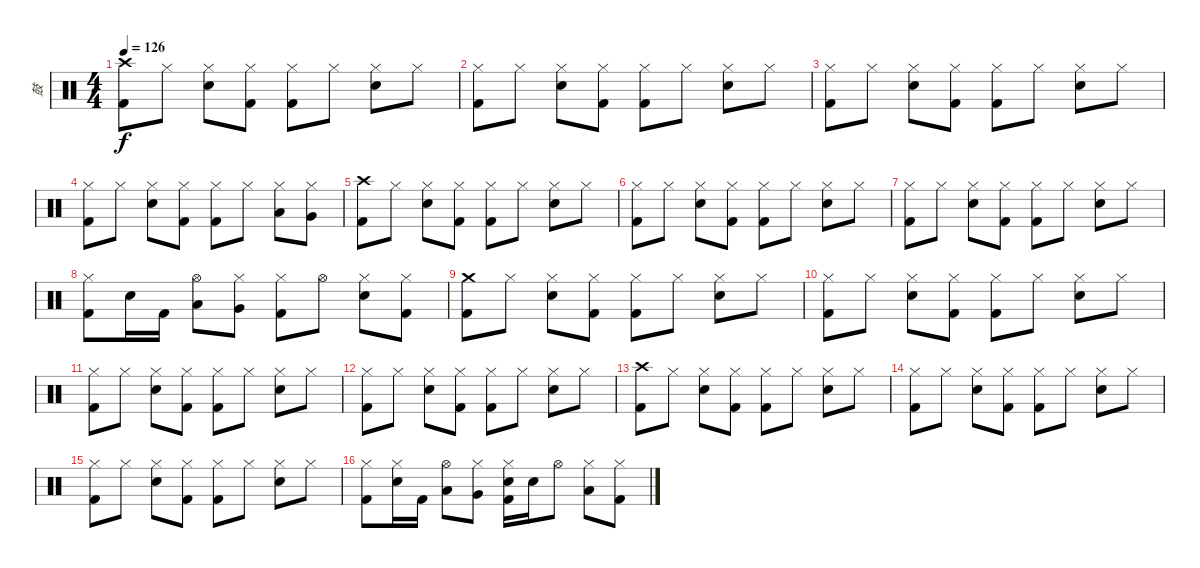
\track ("鼓" "鼓") {instrument percussion}
\staff {score}
\articulation defaults
\ts (4 4)
\tempo 126
\clef neutral
\ks c
("Crash high (hit)" "Kick (hit) 2").8{dy f} "Hi-Hat (closed)".8 ("Hi-Hat (closed)" "Electric Snare (hit)").8 ("Hi-Hat (closed)" "Kick (hit) 2").8 ("Hi-Hat (closed)" "Kick (hit) 2").8 "Hi-Hat (closed)".8 ("Hi-Hat (closed)" "Electric Snare (hit)").8 "Hi-Hat (closed)".8 |
("Hi-Hat (closed)" "Kick (hit) 2").8 "Hi-Hat (closed)".8 ("Hi-Hat (closed)" "Electric Snare (hit)").8 ("Hi-Hat (closed)" "Kick (hit) 2").8 ("Hi-Hat (closed)" "Kick (hit) 2").8 "Hi-Hat (closed)".8 ("Hi-Hat (closed)" "Electric Snare (hit)").8 "Hi-Hat (closed)".8 |
("Hi-Hat (closed)" "Kick (hit) 2").8 "Hi-Hat (closed)".8 ("Hi-Hat (closed)" "Electric Snare (hit)").8 ("Hi-Hat (closed)" "Kick (hit) 2").8 ("Hi-Hat (closed)" "Kick (hit) 2").8 "Hi-Hat (closed)".8 ("Hi-Hat (closed)" "Electric Snare (hit)").8 "Hi-Hat (closed)".8 |
("Hi-Hat (closed)" "Kick (hit) 2").8 "Hi-Hat (closed)".8 ("Hi-Hat (closed)" "Electric Snare (hit)").8 ("Hi-Hat (closed)" "Kick (hit) 2").8 ("Hi-Hat (closed)" "Kick (hit) 2").8 "Hi-Hat (closed)".8 ("Hi-Hat (closed)" "Low Tom (hit)").8 ("Hi-Hat (closed)" "Very Low Tom (hit)").8 |
("Crash high (hit)" "Kick (hit) 2").8 "Hi-Hat (closed)".8 ("Hi-Hat (closed)" "Electric Snare (hit)").8 ("Hi-Hat (closed)" "Kick (hit) 2").8 ("Hi-Hat (closed)" "Kick (hit) 2").8 "Hi-Hat (closed)".8 ("Hi-Hat (closed)" "Electric Snare (hit)").8 "Hi-Hat (closed)".8 |
("Hi-Hat (closed)" "Kick (hit) 2").8 "Hi-Hat (closed)".8 ("Hi-Hat (closed)" "Electric Snare (hit)").8 ("Hi-Hat (closed)" "Kick (hit) 2").8 ("Hi-Hat (closed)" "Kick (hit) 2").8 "Hi-Hat (closed)".8 ("Hi-Hat (closed)" "Electric Snare (hit)").8 "Hi-Hat (closed)".8 |
("Hi-Hat (closed)" "Kick (hit) 2").8 "Hi-Hat (closed)".8 ("Hi-Hat (closed)" "Electric Snare (hit)").8 ("Hi-Hat (closed)" "Kick (hit) 2").8 ("Hi-Hat (closed)" "Kick (hit) 2").8 "Hi-Hat (closed)".8 ("Hi-Hat (closed)" "Electric Snare (hit)").8 "Hi-Hat (closed)".8 |
("Hi-Hat (closed)" "Kick (hit) 2").8 "Electric Snare (hit)".16 "Kick (hit) 2".16 ("Hi-Hat (open)" "Low Tom (hit)").8 ("Hi-Hat (closed)" "Very Low Tom (hit)").8 ("Hi-Hat (closed)" "Kick (hit) 2").8 "Hi-Hat (open)".8 ("Hi-Hat (closed)" "Electric Snare (hit)").8 ("Hi-Hat (closed)" "Kick (hit) 2").8 |
("Crash medium (hit)" "Kick (hit) 2").8 "Hi-Hat (closed)".8 ("Hi-Hat (closed)" "Electric Snare (hit)").8 ("Hi-Hat (closed)" "Kick (hit) 2").8 ("Hi-Hat (closed)" "Kick (hit) 2").8 "Hi-Hat (closed)".8 ("Hi-Hat (closed)" "Electric Snare (hit)").8 "Hi-Hat (closed)".8 |
("Hi-Hat (closed)" "Kick (hit) 2").8 "Hi-Hat (closed)".8 ("Hi-Hat (closed)" "Electric Snare (hit)").8 ("Hi-Hat (closed)" "Kick (hit) 2").8 ("Hi-Hat (closed)" "Kick (hit) 2").8 "Hi-Hat (closed)".8 ("Hi-Hat (closed)" "Electric Snare (hit)").8 "Hi-Hat (closed)".8 |
("Hi-Hat (closed)" "Kick (hit) 2").8 "Hi-Hat (closed)".8 ("Hi-Hat (closed)" "Electric Snare (hit)").8 ("Hi-Hat (closed)" "Kick (hit) 2").8 ("Hi-Hat (closed)" "Kick (hit) 2").8 "Hi-Hat (closed)".8 ("Hi-Hat (closed)" "Electric Snare (hit)").8 "Hi-Hat (closed)".8 |
("Hi-Hat (closed)" "Kick (hit) 2").8 "Hi-Hat (closed)".8 ("Hi-Hat (closed)" "Electric Snare (hit)").8 ("Hi-Hat (closed)" "Kick (hit) 2").8 ("Hi-Hat (closed)" "Kick (hit) 2").8 "Hi-Hat (closed)".8 ("Hi-Hat (closed)" "Electric Snare (hit)").8 "Hi-Hat (closed)".8 |
("Crash high (hit)" "Kick (hit) 2").8 "Hi-Hat (closed)".8 ("Hi-Hat (closed)" "Electric Snare (hit)").8 ("Hi-Hat (closed)" "Kick (hit) 2").8 ("Hi-Hat (closed)" "Kick (hit) 2").8 "Hi-Hat (closed)".8 ("Hi-Hat (closed)" "Electric Snare (hit)").8 "Hi-Hat (closed)".8 |
("Hi-Hat (closed)" "Kick (hit) 2").8 "Hi-Hat (closed)".8 ("Hi-Hat (closed)" "Electric Snare (hit)").8 ("Hi-Hat (closed)" "Kick (hit) 2").8 ("Hi-Hat (closed)" "Kick (hit) 2").8 "Hi-Hat (closed)".8 ("Hi-Hat (closed)" "Electric Snare (hit)").8 "Hi-Hat (closed)".8 |
("Hi-Hat (closed)" "Kick (hit) 2").8 "Hi-Hat (closed)".8 ("Hi-Hat (closed)" "Electric Snare (hit)").8 ("Hi-Hat (closed)" "Kick (hit) 2").8 ("Hi-Hat (closed)" "Kick (hit) 2").8 "Hi-Hat (closed)".8 ("Hi-Hat (closed)" "Electric Snare (hit)").8 "Hi-Hat (closed)".8 |
("Hi-Hat (closed)" "Kick (hit) 2").8 ("Hi-Hat (closed)" "Electric Snare (hit)").16 "Kick (hit) 2".16 ("Hi-Hat (open)" "Low Tom (hit)").8 ("Hi-Hat (closed)" "Very Low Tom (hit)").8 ("Hi-Hat (closed)" "Electric Snare (hit)" "Kick (hit) 2").16 "Electric Snare (hit)".16 "Hi-Hat (open)".8 ("Hi-Hat (closed)" "Low Tom (hit)").8 ("Hi-Hat (closed)" "Kick (hit) 2").8
